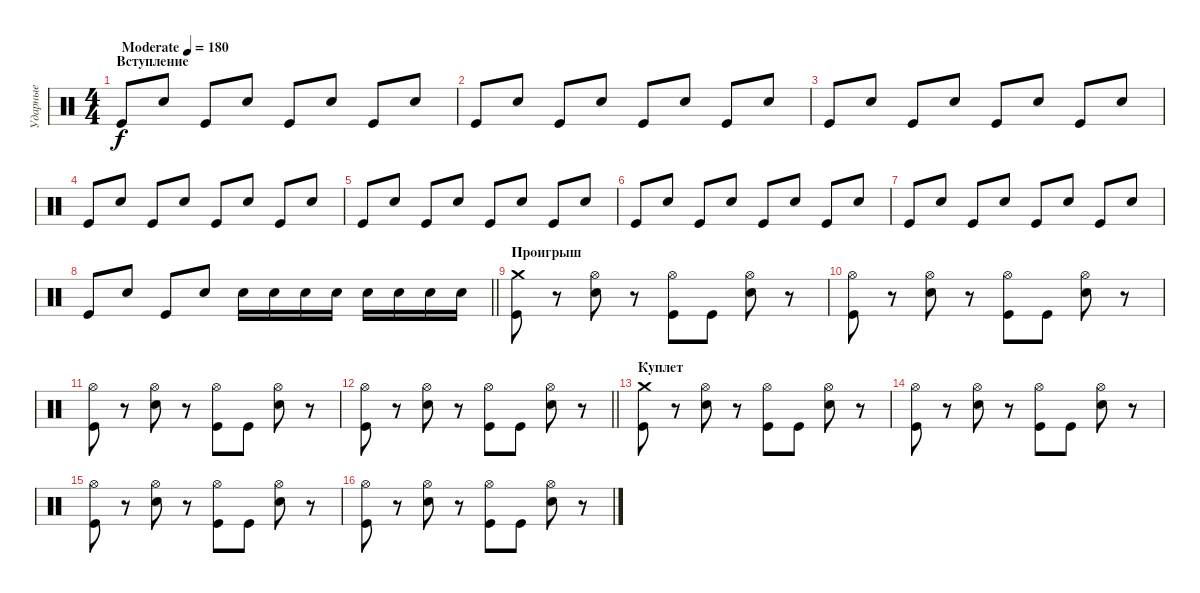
\track ("Ударные" "Ударные") {instrument percussion}
\staff {score}
\articulation defaults
\ts (4 4)
\section ("" "Вступление")
\tempo (180 "Moderate")
\clef neutral
\ks c "Kick (hit)".8{dy f} "Electric Snare (hit)".8 "Kick (hit)".8 "Electric Snare (hit)".8 "Kick (hit)".8 "Electric Snare (hit)".8 "Kick (hit)".8 "Electric Snare (hit)".8
|
"Kick (hit)".8 "Electric Snare (hit)".8 "Kick (hit)".8 "Electric Snare (hit)".8 "Kick (hit)".8 "Electric Snare (hit)".8 "Kick (hit)".8 "Electric Snare (hit)".8 |
"Kick (hit)".8 "Electric Snare (hit)".8 "Kick (hit)".8 "Electric Snare (hit)".8 "Kick (hit)".8 "Electric Snare (hit)".8 "Kick (hit)".8 "Electric Snare (hit)".8 |
"Kick (hit)".8 "Electric Snare (hit)".8 "Kick (hit)".8 "Electric Snare (hit)".8 "Kick (hit)".8 "Electric Snare (hit)".8 "Kick (hit)".8 "Electric Snare (hit)".8 |
"Kick (hit)".8 "Electric Snare (hit)".8 "Kick (hit)".8 "Electric Snare (hit)".8 "Kick (hit)".8 "Electric Snare (hit)".8 "Kick (hit)".8 "Electric Snare (hit)".8 |
"Kick (hit)".8 "Electric Snare (hit)".8 "Kick (hit)".8 "Electric Snare (hit)".8 "Kick (hit)".8 "Electric Snare (hit)".8 "Kick (hit)".8 "Electric Snare (hit)".8 |
"Kick (hit)".8 "Electric Snare (hit)".8 "Kick (hit)".8 "Electric Snare (hit)".8 "Kick (hit)".8 "Electric Snare (hit)".8 "Kick (hit)".8 "Electric Snare (hit)".8 |
\barLineRight lightlight "Kick (hit)".8 "Electric Snare (hit)".8 "Kick (hit)".8 "Electric Snare (hit)".8 "Electric Snare (hit)".16 "Electric Snare (hit)".16 "Electric Snare (hit)".16 "Electric Snare (hit)".16 "Electric Snare (hit)".16 "Electric Snare (hit)".16 "Electric Snare (hit)".16 "Electric Snare (hit)".16
|
\section ("" "Проигрыш")
("Crash medium (hit)" "Kick (hit)").8 r.8 ("Hi-Hat (open)" "Electric Snare (hit)").8 r.8 ("Hi-Hat (open)" "Kick (hit)").8 "Kick (hit)".8 ("Hi-Hat (open)" "Electric Snare (hit)").8 r.8 |
("Hi-Hat (open)" "Kick (hit)").8 r.8 ("Hi-Hat (open)" "Electric Snare (hit)").8 r.8 ("Hi-Hat (open)" "Kick (hit)").8 "Kick (hit)".8 ("Hi-Hat (open)" "Electric Snare (hit)").8 r.8 |
("Hi-Hat (open)" "Kick (hit)").8 r.8 ("Hi-Hat (open)" "Electric Snare (hit)").8 r.8 ("Hi-Hat (open)" "Kick (hit)").8 "Kick (hit)".8 ("Hi-Hat (open)" "Electric Snare (hit)").8 r.8 |
\barLineRight lightlight
("Hi-Hat (open)" "Kick (hit)").8 r.8 ("Hi-Hat (open)" "Electric Snare (hit)").8 r.8 ("Hi-Hat (open)" "Kick (hit)").8 "Kick (hit)".8 ("Hi-Hat (open)" "Electric Snare (hit)").8 r.8 |
\section ("" "Куплет")
("Crash medium (hit)" "Kick (hit)").8 r.8 ("Hi-Hat (open)" "Electric Snare (hit)").8 r.8 ("Hi-Hat (open)" "Kick (hit)").8 "Kick (hit)".8 ("Hi-Hat (open)" "Electric Snare (hit)").8 r.8 |
("Hi-Hat (open)" "Kick (hit)").8 r.8 ("Hi-Hat (open)" "Electric Snare (hit)").8 r.8 ("Hi-Hat (open)" "Kick (hit)").8 "Kick (hit)".8 ("Hi-Hat (open)" "Electric Snare (hit)").8 r.8 |
("Hi-Hat (open)" "Kick (hit)").8 r.8 ("Hi-Hat (open)" "Electric Snare (hit)").8 r.8 ("Hi-Hat (open)" "Kick (hit)").8 "Kick (hit)".8 ("Hi-Hat (open)" "Electric Snare (hit)").8 r.8 |
("Hi-Hat (open)" "Kick (hit)").8 r.8 ("Hi-Hat (open)" "Electric Snare (hit)").8 r.8 ("Hi-Hat (open)" "Kick (hit)").8 "Kick (hit)".8 ("Hi-Hat (open)" "Electric Snare (hit)").8 r.8
